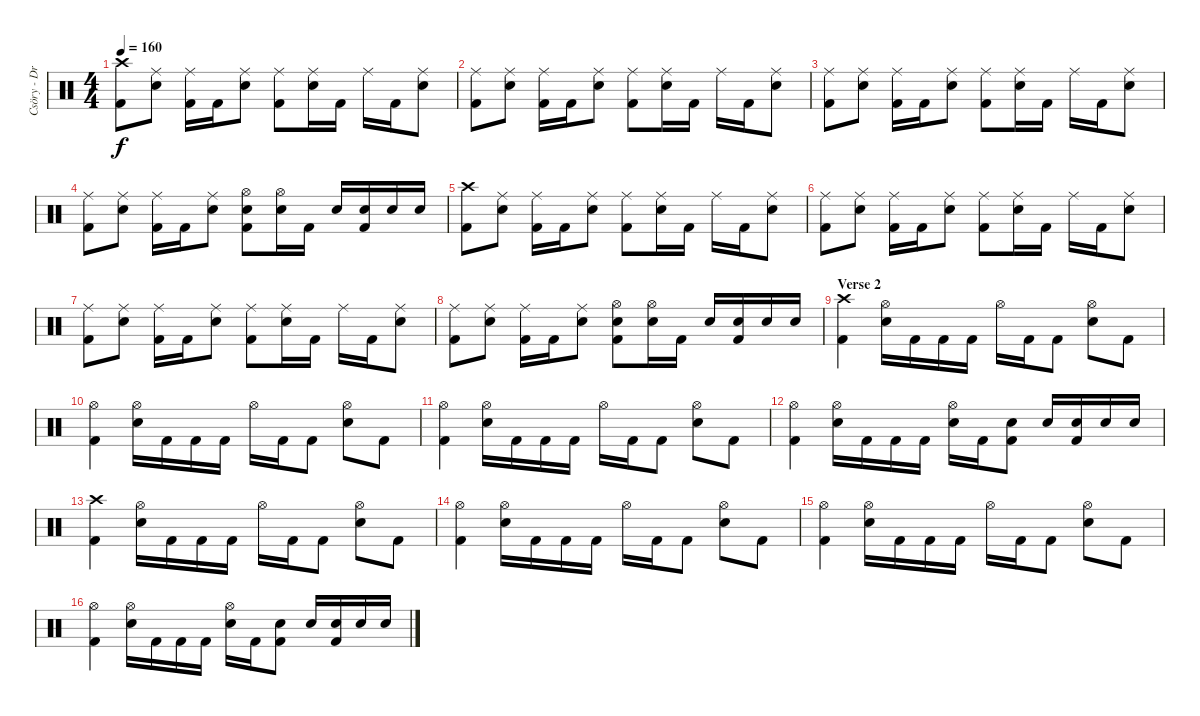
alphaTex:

\track ("Csöry - DrumZ" "Csöry - Dr") {instrument percussion}
\staff {score}
\articulation defaults
\ts (4 4)
\tempo 160
\clef neutral
\ks c
("Crash high (hit)" "Kick (hit) 2").8{dy f} ("Ride (middle)" "Snare (hit) 2").8 ("Ride (middle)" "Kick (hit) 2").16 "Kick (hit) 2".16 ("Ride (middle)" "Snare (hit) 2").8 ("Ride (middle)" "Kick (hit) 2").8 ("Ride (middle)" "Snare (hit) 2").16 "Kick (hit) 2".16 "Ride (middle)".16 "Kick (hit) 2".16 ("Ride (middle)" "Snare (hit) 2").8 |
("Ride (middle)" "Kick (hit) 2").8 ("Ride (middle)" "Snare (hit) 2").8 ("Ride (middle)" "Kick (hit) 2").16 "Kick (hit) 2".16 ("Ride (middle)" "Snare (hit) 2").8 ("Ride (middle)" "Kick (hit) 2").8 ("Ride (middle)" "Snare (hit) 2").16 "Kick (hit) 2".16 "Ride (middle)".16 "Kick (hit) 2".16 ("Ride (middle)" "Snare (hit) 2").8 |
("Ride (middle)" "Kick (hit) 2").8 ("Ride (middle)" "Snare (hit) 2").8 ("Ride (middle)" "Kick (hit) 2").16 "Kick (hit) 2".16 ("Ride (middle)" "Snare (hit) 2").8 ("Ride (middle)" "Kick (hit) 2").8 ("Ride (middle)" "Snare (hit) 2").16 "Kick (hit) 2".16 "Ride (middle)".16 "Kick (hit) 2".16 ("Ride (middle)" "Snare (hit) 2").8 |
("Ride (middle)" "Kick (hit) 2").8 ("Ride (middle)" "Snare (hit) 2").8 ("Ride (middle)" "Kick (hit) 2").16 "Kick (hit) 2".16 ("Ride (middle)" "Snare (hit) 2").8 ("Hi-Hat (open)" "Snare (hit) 2" "Kick (hit) 2").8 ("Hi-Hat (open)" "Snare (hit) 2").16 "Kick (hit) 2".16 "Snare (hit) 2".16 ("Snare (hit) 2" "Kick (hit) 2").16 "Snare (hit) 2".16 "Snare (hit) 2".16 |
("Crash high (hit)" "Kick (hit) 2").8 ("Ride (middle)" "Snare (hit) 2").8 ("Ride (middle)" "Kick (hit) 2").16 "Kick (hit) 2".16 ("Ride (middle)" "Snare (hit) 2").8 ("Ride (middle)" "Kick (hit) 2").8 ("Ride (middle)" "Snare (hit) 2").16 "Kick (hit) 2".16 "Ride (middle)".16 "Kick (hit) 2".16 ("Ride (middle)" "Snare (hit) 2").8 |
("Ride (middle)" "Kick (hit) 2").8 ("Ride (middle)" "Snare (hit) 2").8 ("Ride (middle)" "Kick (hit) 2").16 "Kick (hit) 2".16 ("Ride (middle)" "Snare (hit) 2").8 ("Ride (middle)" "Kick (hit) 2").8 ("Ride (middle)" "Snare (hit) 2").16 "Kick (hit) 2".16 "Ride (middle)".16 "Kick (hit) 2".16 ("Ride (middle)" "Snare (hit) 2").8 |
("Ride (middle)" "Kick (hit) 2").8 ("Ride (middle)" "Snare (hit) 2").8 ("Ride (middle)" "Kick (hit) 2").16 "Kick (hit) 2".16 ("Ride (middle)" "Snare (hit) 2").8 ("Ride (middle)" "Kick (hit) 2").8 ("Ride (middle)" "Snare (hit) 2").16 "Kick (hit) 2".16 "Ride (middle)".16 "Kick (hit) 2".16 ("Ride (middle)" "Snare (hit) 2").8 |
("Ride (middle)" "Kick (hit) 2").8 ("Ride (middle)" "Snare (hit) 2").8 ("Ride (middle)" "Kick (hit) 2").16 "Kick (hit) 2".16 ("Ride (middle)" "Snare (hit) 2").8 ("Hi-Hat (open)" "Snare (hit) 2" "Kick (hit) 2").8 ("Hi-Hat (open)" "Snare (hit) 2").16 "Kick (hit) 2".16 "Snare (hit) 2".16 ("Snare (hit) 2" "Kick (hit) 2").16 "Snare (hit) 2".16 "Snare (hit) 2".16 |
\section ("" "Verse 2")
("Crash high (hit)" "Kick (hit) 2").4 ("Snare (hit) 2" "Hi-Hat (open)").16 "Kick (hit) 2".16 "Kick (hit) 2".16 "Kick (hit) 2".16 "Hi-Hat (open)".16 "Kick (hit) 2".16 "Kick (hit) 2".8 ("Snare (hit) 2" "Hi-Hat (open)").8 "Kick (hit) 2".8 |
("Hi-Hat (open)" "Kick (hit) 2").4 ("Snare (hit) 2" "Hi-Hat (open)").16 "Kick (hit) 2".16 "Kick (hit) 2".16 "Kick (hit) 2".16 "Hi-Hat (open)".16 "Kick (hit) 2".16 "Kick (hit) 2".8 ("Snare (hit) 2" "Hi-Hat (open)").8 "Kick (hit) 2".8 |
("Hi-Hat (open)" "Kick (hit) 2").4 ("Snare (hit) 2" "Hi-Hat (open)").16 "Kick (hit) 2".16 "Kick (hit) 2".16 "Kick (hit) 2".16 "Hi-Hat (open)".16 "Kick (hit) 2".16 "Kick (hit) 2".8 ("Snare (hit) 2" "Hi-Hat (open)").8 "Kick (hit) 2".8 |
("Hi-Hat (open)" "Kick (hit) 2").4 ("Snare (hit) 2" "Hi-Hat (open)").16 "Kick (hit) 2".16 "Kick (hit) 2".16 "Kick (hit) 2".16 ("Snare (hit) 2" "Hi-Hat (open)").16 "Kick (hit) 2".16 ("Snare (hit) 2" "Kick (hit) 2").8 "Snare (hit) 2".16 ("Snare (hit) 2" "Kick (hit) 2").16 "Snare (hit) 2".16 "Snare (hit) 2".16 |
("Crash high (hit)" "Kick (hit) 2").4 ("Snare (hit) 2" "Hi-Hat (open)").16 "Kick (hit) 2".16 "Kick (hit) 2".16 "Kick (hit) 2".16 "Hi-Hat (open)".16 "Kick (hit) 2".16 "Kick (hit) 2".8 ("Snare (hit) 2" "Hi-Hat (open)").8 "Kick (hit) 2".8 |
("Hi-Hat (open)" "Kick (hit) 2").4 ("Snare (hit) 2" "Hi-Hat (open)").16 "Kick (hit) 2".16 "Kick (hit) 2".16 "Kick (hit) 2".16 "Hi-Hat (open)".16 "Kick (hit) 2".16 "Kick (hit) 2".8 ("Snare (hit) 2" "Hi-Hat (open)").8 "Kick (hit) 2".8 |
("Hi-Hat (open)" "Kick (hit) 2").4 ("Snare (hit) 2" "Hi-Hat (open)").16 "Kick (hit) 2".16 "Kick (hit) 2".16 "Kick (hit) 2".16 "Hi-Hat (open)".16 "Kick (hit) 2".16 "Kick (hit) 2".8 ("Snare (hit) 2" "Hi-Hat (open)").8 "Kick (hit) 2".8 |
("Hi-Hat (open)" "Kick (hit) 2").4 ("Snare (hit) 2" "Hi-Hat (open)").16 "Kick (hit) 2".16 "Kick (hit) 2".16 "Kick (hit) 2".16 ("Snare (hit) 2" "Hi-Hat (open)").16 "Kick (hit) 2".16 ("Snare (hit) 2" "Kick (hit) 2").8 "Snare (hit) 2".16 ("Snare (hit) 2" "Kick (hit) 2").16 "Snare (hit) 2".16 "Snare (hit) 2".16
